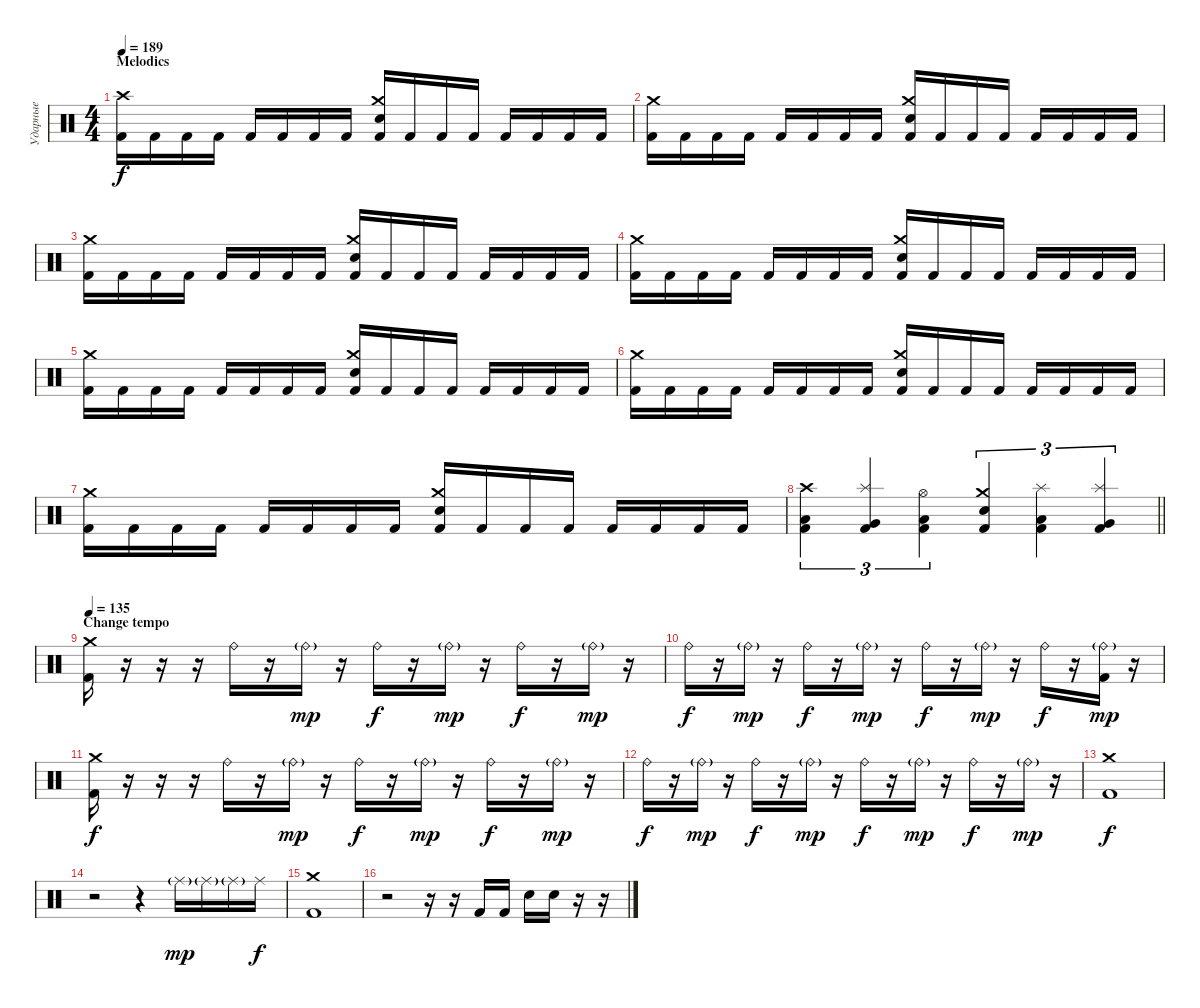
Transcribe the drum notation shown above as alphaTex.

\track ("Ударные" "Ударные") {instrument percussion}
\staff {score}
\articulation defaults
\ts (4 4)
\section ("" "Melodics")
\tempo 189
\clef neutral
\ks c
("Crash high (hit)" "Kick (hit) 2").16{dy f} "Kick (hit) 2".16 "Kick (hit) 2".16 "Kick (hit) 2".16 "Kick (hit) 2".16 "Kick (hit) 2".16 "Kick (hit) 2".16 "Kick (hit) 2".16 ("Crash medium (hit)" "Electric Snare (hit)" "Kick (hit) 2").16 "Kick (hit) 2".16 "Kick (hit) 2".16 "Kick (hit) 2".16 "Kick (hit) 2".16 "Kick (hit) 2".16 "Kick (hit) 2".16 "Kick (hit) 2".16 |
("Crash medium (hit)" "Kick (hit) 2").16 "Kick (hit) 2".16 "Kick (hit) 2".16 "Kick (hit) 2".16 "Kick (hit) 2".16 "Kick (hit) 2".16 "Kick (hit) 2".16 "Kick (hit) 2".16 ("Crash medium (hit)" "Electric Snare (hit)" "Kick (hit) 2").16 "Kick (hit) 2".16 "Kick (hit) 2".16 "Kick (hit) 2".16 "Kick (hit) 2".16 "Kick (hit) 2".16 "Kick (hit) 2".16 "Kick (hit) 2".16 |
("Crash medium (hit)" "Kick (hit) 2").16 "Kick (hit) 2".16 "Kick (hit) 2".16 "Kick (hit) 2".16 "Kick (hit) 2".16 "Kick (hit) 2".16 "Kick (hit) 2".16 "Kick (hit) 2".16 ("Crash medium (hit)" "Electric Snare (hit)" "Kick (hit) 2").16 "Kick (hit) 2".16 "Kick (hit) 2".16 "Kick (hit) 2".16 "Kick (hit) 2".16 "Kick (hit) 2".16 "Kick (hit) 2".16 "Kick (hit) 2".16 |
("Crash medium (hit)" "Kick (hit) 2").16 "Kick (hit) 2".16 "Kick (hit) 2".16 "Kick (hit) 2".16 "Kick (hit) 2".16 "Kick (hit) 2".16 "Kick (hit) 2".16 "Kick (hit) 2".16 ("Crash medium (hit)" "Electric Snare (hit)" "Kick (hit) 2").16 "Kick (hit) 2".16 "Kick (hit) 2".16 "Kick (hit) 2".16 "Kick (hit) 2".16 "Kick (hit) 2".16 "Kick (hit) 2".16 "Kick (hit) 2".16 |
("Crash medium (hit)" "Kick (hit) 2").16 "Kick (hit) 2".16 "Kick (hit) 2".16 "Kick (hit) 2".16 "Kick (hit) 2".16 "Kick (hit) 2".16 "Kick (hit) 2".16 "Kick (hit) 2".16 ("Crash medium (hit)" "Electric Snare (hit)" "Kick (hit) 2").16 "Kick (hit) 2".16 "Kick (hit) 2".16 "Kick (hit) 2".16 "Kick (hit) 2".16 "Kick (hit) 2".16 "Kick (hit) 2".16 "Kick (hit) 2".16 |
("Crash medium (hit)" "Kick (hit) 2").16 "Kick (hit) 2".16 "Kick (hit) 2".16 "Kick (hit) 2".16 "Kick (hit) 2".16 "Kick (hit) 2".16 "Kick (hit) 2".16 "Kick (hit) 2".16 ("Crash medium (hit)" "Electric Snare (hit)" "Kick (hit) 2").16 "Kick (hit) 2".16 "Kick (hit) 2".16 "Kick (hit) 2".16 "Kick (hit) 2".16 "Kick (hit) 2".16 "Kick (hit) 2".16 "Kick (hit) 2".16 |
("Crash medium (hit)" "Kick (hit) 2").16 "Kick (hit) 2".16 "Kick (hit) 2".16 "Kick (hit) 2".16 "Kick (hit) 2".16 "Kick (hit) 2".16 "Kick (hit) 2".16 "Kick (hit) 2".16 ("Crash medium (hit)" "Electric Snare (hit)" "Kick (hit) 2").16 "Kick (hit) 2".16 "Kick (hit) 2".16 "Kick (hit) 2".16 "Kick (hit) 2".16 "Kick (hit) 2".16 "Kick (hit) 2".16 "Kick (hit) 2".16 |
\barLineRight lightlight
("Crash high (hit)" "Low Tom (hit)" "Kick (hit) 2").4{tu (3 2)} ("Splash (hit)" "Very Low Tom (hit)" "Kick (hit) 2").4{tu (3 2)} ("Hi-Hat (open)" "Low Tom (hit)" "Kick (hit) 2").4{tu (3 2)} ("Crash medium (hit)" "Electric Snare (hit)" "Kick (hit) 2").4{tu (3 2)} ("Splash (hit)" "Low Tom (hit)" "Kick (hit) 2").4{tu (3 2)} ("Splash (hit)" "Very Low Tom (hit)" "Kick (hit) 2").4{tu (3 2)} |
\section ("" "Change tempo")
\tempo 138
\tempo 135
("Crash medium (hit)" "Kick (hit) 2").16 r.16 r.16 r.16 "Ride (bell)".16 r.16 "Ride (bell)"{g}.16{dy mp} r.16 "Ride (bell)".16{dy f} r.16 "Ride (bell)"{g}.16{dy mp} r.16 "Ride (bell)".16{dy f} r.16 "Ride (bell)"{g}.16{dy mp} r.16 |
"Ride (bell)".16{dy f} r.16 "Ride (bell)"{g}.16{dy mp} r.16 "Ride (bell)".16{dy f} r.16 "Ride (bell)"{g}.16{dy mp} r.16 "Ride (bell)".16{dy f} r.16 "Ride (bell)"{g}.16{dy mp} r.16 "Ride (bell)".16{dy f} r.16 ("Ride (bell)"{g} "Kick (hit) 2").16{dy mp} r.16 |
("Crash medium (hit)" "Kick (hit) 2").16{dy f} r.16 r.16 r.16 "Ride (bell)".16 r.16 "Ride (bell)"{g}.16{dy mp} r.16 "Ride (bell)".16{dy f} r.16 "Ride (bell)"{g}.16{dy mp} r.16 "Ride (bell)".16{dy f} r.16 "Ride (bell)"{g}.16{dy mp} r.16 |
"Ride (bell)".16{dy f} r.16 "Ride (bell)"{g}.16{dy mp} r.16 "Ride (bell)".16{dy f} r.16 "Ride (bell)"{g}.16{dy mp} r.16 "Ride (bell)".16{dy f} r.16 "Ride (bell)"{g}.16{dy mp} r.16 "Ride (bell)".16{dy f} r.16 "Ride (bell)"{g}.16{dy mp} r.16 |
("Crash medium (hit)" "Kick (hit) 2").1{dy f} |
r.2 r.4 "Ride (middle)"{g}.16{dy mp} "Ride (middle)"{g}.16 "Ride (middle)"{g}.16 "Ride (middle)".16{dy f} |
("Crash medium (hit)" "Kick (hit) 2").1 |
r.2 r.16 r.16 "Kick (hit) 2".16 "Kick (hit) 2".16 "Electric Snare (hit)".16 "Electric Snare (hit)".16 r.16 r.16
